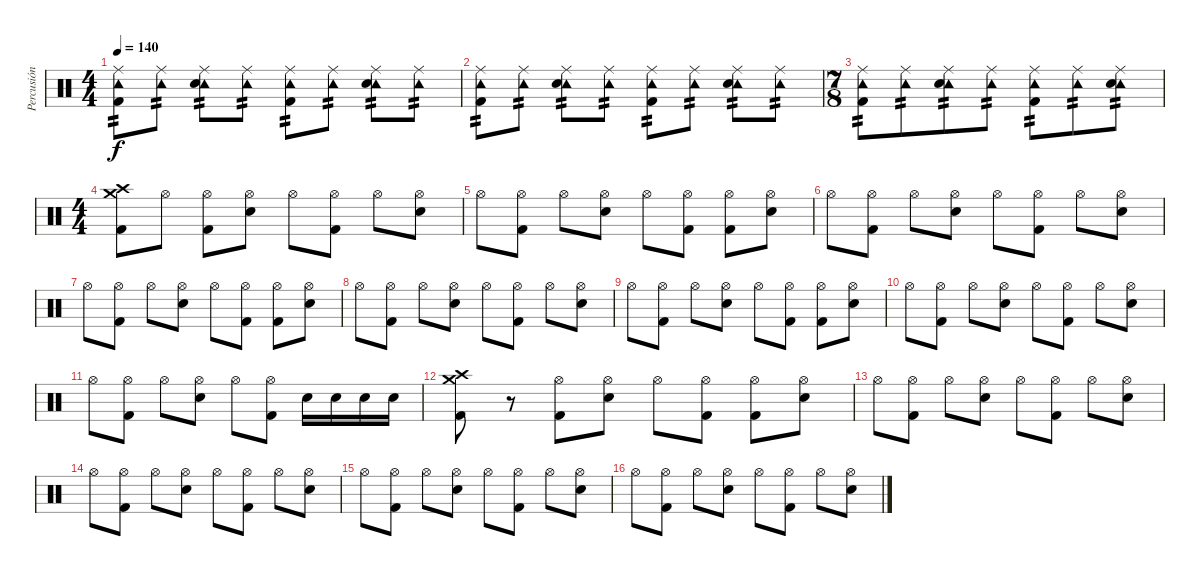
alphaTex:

\track ("Percusión" "Percusión") {instrument percussion}
\staff {score}
\articulation defaults
\ts (4 4)
\tempo 140
\clef neutral
\ks c
("Tambourine (hit)" "Ride (middle)" "Kick (hit) 2").8{tp 2 dy f} ("Tambourine (hit)" "Ride (middle)").8{tp 2} ("Tambourine (hit)" "Ride (middle)" "Electric Snare (hit)").8{tp 2} ("Tambourine (hit)" "Ride (middle)").8{tp 2} ("Tambourine (hit)" "Ride (middle)" "Kick (hit) 2").8{tp 2} ("Tambourine (hit)" "Ride (middle)").8{tp 2} ("Tambourine (hit)" "Ride (middle)" "Electric Snare (hit)").8{tp 2} ("Tambourine (hit)" "Ride (middle)").8{tp 2} |
("Tambourine (hit)" "Ride (middle)" "Kick (hit) 2").8{tp 2} ("Tambourine (hit)" "Ride (middle)").8{tp 2} ("Tambourine (hit)" "Ride (middle)" "Electric Snare (hit)").8{tp 2} ("Tambourine (hit)" "Ride (middle)").8{tp 2} ("Tambourine (hit)" "Ride (middle)" "Kick (hit) 2").8{tp 2} ("Tambourine (hit)" "Ride (middle)").8{tp 2} ("Tambourine (hit)" "Ride (middle)" "Electric Snare (hit)").8{tp 2} ("Tambourine (hit)" "Ride (middle)").8{tp 2} |
\ts (7 8)
("Tambourine (hit)" "Ride (middle)" "Kick (hit) 2").8{tp 2} ("Tambourine (hit)" "Ride (middle)").8{tp 2} ("Tambourine (hit)" "Ride (middle)" "Electric Snare (hit)").8{tp 2} ("Tambourine (hit)" "Ride (middle)").8{tp 2} ("Tambourine (hit)" "Ride (middle)" "Kick (hit) 2").8{tp 2} ("Tambourine (hit)" "Ride (middle)").8{tp 2} ("Tambourine (hit)" "Ride (middle)" "Electric Snare (hit)").8{tp 2} |
\ts (4 4)
("Crash high (hit)" "Crash medium (hit)" "Kick (hit) 2").8 "Hi-Hat (open)".8 ("Hi-Hat (open)" "Kick (hit) 2").8 ("Hi-Hat (open)" "Electric Snare (hit)").8 "Hi-Hat (open)".8 ("Hi-Hat (open)" "Kick (hit) 2").8 "Hi-Hat (open)".8 ("Hi-Hat (open)" "Electric Snare (hit)").8 |
"Hi-Hat (open)".8 ("Hi-Hat (open)" "Kick (hit) 2").8 "Hi-Hat (open)".8 ("Hi-Hat (open)" "Electric Snare (hit)").8 "Hi-Hat (open)".8 ("Hi-Hat (open)" "Kick (hit) 2").8 ("Hi-Hat (open)" "Kick (hit) 2").8 ("Hi-Hat (open)" "Electric Snare (hit)").8 |
"Hi-Hat (open)".8 ("Hi-Hat (open)" "Kick (hit) 2").8 "Hi-Hat (open)".8 ("Hi-Hat (open)" "Electric Snare (hit)").8 "Hi-Hat (open)".8 ("Hi-Hat (open)" "Kick (hit) 2").8 "Hi-Hat (open)".8 ("Hi-Hat (open)" "Electric Snare (hit)").8 |
"Hi-Hat (open)".8 ("Hi-Hat (open)" "Kick (hit) 2").8 "Hi-Hat (open)".8 ("Hi-Hat (open)" "Electric Snare (hit)").8 "Hi-Hat (open)".8 ("Hi-Hat (open)" "Kick (hit) 2").8 ("Hi-Hat (open)" "Kick (hit) 2").8 ("Hi-Hat (open)" "Electric Snare (hit)").8 |
"Hi-Hat (open)".8 ("Hi-Hat (open)" "Kick (hit) 2").8 "Hi-Hat (open)".8 ("Hi-Hat (open)" "Electric Snare (hit)").8 "Hi-Hat (open)".8 ("Hi-Hat (open)" "Kick (hit) 2").8 "Hi-Hat (open)".8 ("Hi-Hat (open)" "Electric Snare (hit)").8 |
"Hi-Hat (open)".8 ("Hi-Hat (open)" "Kick (hit) 2").8 "Hi-Hat (open)".8 ("Hi-Hat (open)" "Electric Snare (hit)").8 "Hi-Hat (open)".8 ("Hi-Hat (open)" "Kick (hit) 2").8 ("Hi-Hat (open)" "Kick (hit) 2").8 ("Hi-Hat (open)" "Electric Snare (hit)").8 |
"Hi-Hat (open)".8 ("Hi-Hat (open)" "Kick (hit) 2").8 "Hi-Hat (open)".8 ("Hi-Hat (open)" "Electric Snare (hit)").8 "Hi-Hat (open)".8 ("Hi-Hat (open)" "Kick (hit) 2").8 "Hi-Hat (open)".8 ("Hi-Hat (open)" "Electric Snare (hit)").8 |
"Hi-Hat (open)".8 ("Hi-Hat (open)" "Kick (hit) 2").8 "Hi-Hat (open)".8 ("Hi-Hat (open)" "Electric Snare (hit)").8 "Hi-Hat (open)".8 ("Hi-Hat (open)" "Kick (hit) 2").8 "Electric Snare (hit)".16 "Electric Snare (hit)".16 "Electric Snare (hit)".16 "Electric Snare (hit)".16 |
("Crash high (hit)" "Crash medium (hit)" "Kick (hit) 2").8 r.8 ("Hi-Hat (open)" "Kick (hit) 2").8 ("Hi-Hat (open)" "Electric Snare (hit)").8 "Hi-Hat (open)".8 ("Hi-Hat (open)" "Kick (hit) 2").8 ("Hi-Hat (open)" "Kick (hit) 2").8 ("Hi-Hat (open)" "Electric Snare (hit)").8 |
"Hi-Hat (open)".8 ("Hi-Hat (open)" "Kick (hit) 2").8 "Hi-Hat (open)".8 ("Hi-Hat (open)" "Electric Snare (hit)").8 "Hi-Hat (open)".8 ("Hi-Hat (open)" "Kick (hit) 2").8 "Hi-Hat (open)".8 ("Hi-Hat (open)" "Electric Snare (hit)").8 |
"Hi-Hat (open)".8 ("Hi-Hat (open)" "Kick (hit) 2").8 "Hi-Hat (open)".8 ("Hi-Hat (open)" "Electric Snare (hit)").8 "Hi-Hat (open)".8 ("Hi-Hat (open)" "Kick (hit) 2").8 "Hi-Hat (open)".8 ("Hi-Hat (open)" "Electric Snare (hit)").8 |
"Hi-Hat (open)".8 ("Hi-Hat (open)" "Kick (hit) 2").8 "Hi-Hat (open)".8 ("Hi-Hat (open)" "Electric Snare (hit)").8 "Hi-Hat (open)".8 ("Hi-Hat (open)" "Kick (hit) 2").8 "Hi-Hat (open)".8 ("Hi-Hat (open)" "Electric Snare (hit)").8 |
"Hi-Hat (open)".8 ("Hi-Hat (open)" "Kick (hit) 2").8 "Hi-Hat (open)".8 ("Hi-Hat (open)" "Electric Snare (hit)").8 "Hi-Hat (open)".8 ("Hi-Hat (open)" "Kick (hit) 2").8 "Hi-Hat (open)".8 ("Hi-Hat (open)" "Electric Snare (hit)").8
